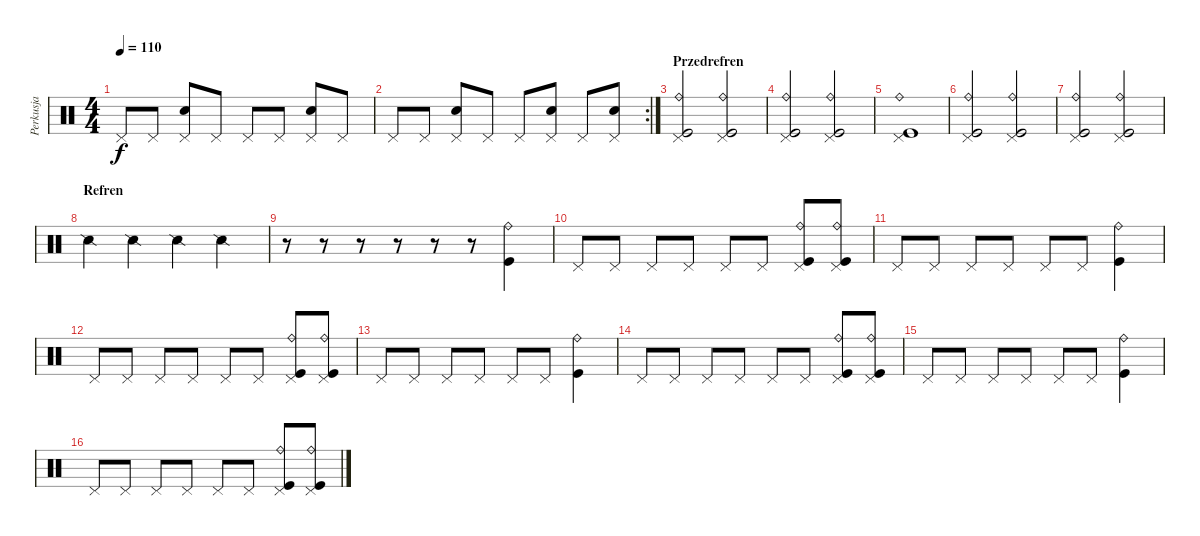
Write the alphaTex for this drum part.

\track ("Perkusja" "Perkusja") {instrument percussion}
\staff {score}
\articulation defaults
\ts (4 4)
\tempo 110
\clef neutral
\ks c "Pedal Hi-Hat (hit)".8{dy f} "Pedal Hi-Hat (hit)".8
("Electric Snare (hit)" "Pedal Hi-Hat (hit)").8 "Pedal Hi-Hat (hit)".8 "Pedal Hi-Hat (hit)".8 "Pedal Hi-Hat (hit)".8 ("Electric Snare (hit)" "Pedal Hi-Hat (hit)").8 "Pedal Hi-Hat (hit)".8 |
\rc 2 "Pedal Hi-Hat (hit)".8 "Pedal Hi-Hat (hit)".8
("Electric Snare (hit)" "Pedal Hi-Hat (hit)").8 "Pedal Hi-Hat (hit)".8 "Pedal Hi-Hat (hit)".8 ("Electric Snare (hit)" "Pedal Hi-Hat (hit)").8 "Pedal Hi-Hat (hit)".8 ("Electric Snare (hit)" "Pedal Hi-Hat (hit)").8 |
\section ("" "Przedrefren")
("Kick (hit)" "Ride (bell)" "Pedal Hi-Hat (hit)").2 ("Kick (hit)" "Ride (bell)" "Pedal Hi-Hat (hit)").2 |
("Kick (hit)" "Ride (bell)" "Pedal Hi-Hat (hit)").2 ("Kick (hit)" "Ride (bell)" "Pedal Hi-Hat (hit)").2 |
("Kick (hit)" "Ride (bell)" "Pedal Hi-Hat (hit)").1 |
("Kick (hit)" "Ride (bell)" "Pedal Hi-Hat (hit)").2 ("Kick (hit)" "Ride (bell)" "Pedal Hi-Hat (hit)").2 |
("Kick (hit)" "Ride (bell)" "Pedal Hi-Hat (hit)").2 ("Kick (hit)" "Ride (bell)" "Pedal Hi-Hat (hit)").2 |
\section ("" "Refren")
"Snare (side stick) 2".4 "Snare (side stick) 2".4 "Snare (side stick) 2".4 "Snare (side stick) 2".4 |
r.8 r.8 r.8 r.8 r.8 r.8 ("Kick (hit)" "Ride (bell)").4 |
"Pedal Hi-Hat (hit)".8 "Pedal Hi-Hat (hit)".8 "Pedal Hi-Hat (hit)".8 "Pedal Hi-Hat (hit)".8 "Pedal Hi-Hat (hit)".8 "Pedal Hi-Hat (hit)".8 ("Kick (hit)" "Ride (bell)" "Pedal Hi-Hat (hit)").8 ("Kick (hit)" "Ride (bell)" "Pedal Hi-Hat (hit)").8 |
"Pedal Hi-Hat (hit)".8 "Pedal Hi-Hat (hit)".8 "Pedal Hi-Hat (hit)".8 "Pedal Hi-Hat (hit)".8 "Pedal Hi-Hat (hit)".8 "Pedal Hi-Hat (hit)".8 ("Kick (hit)" "Ride (bell)").4 |
"Pedal Hi-Hat (hit)".8 "Pedal Hi-Hat (hit)".8 "Pedal Hi-Hat (hit)".8 "Pedal Hi-Hat (hit)".8 "Pedal Hi-Hat (hit)".8 "Pedal Hi-Hat (hit)".8 ("Kick (hit)" "Ride (bell)" "Pedal Hi-Hat (hit)").8 ("Kick (hit)" "Ride (bell)" "Pedal Hi-Hat (hit)").8 |
"Pedal Hi-Hat (hit)".8 "Pedal Hi-Hat (hit)".8 "Pedal Hi-Hat (hit)".8 "Pedal Hi-Hat (hit)".8 "Pedal Hi-Hat (hit)".8 "Pedal Hi-Hat (hit)".8 ("Kick (hit)" "Ride (bell)").4 |
"Pedal Hi-Hat (hit)".8 "Pedal Hi-Hat (hit)".8 "Pedal Hi-Hat (hit)".8 "Pedal Hi-Hat (hit)".8 "Pedal Hi-Hat (hit)".8 "Pedal Hi-Hat (hit)".8 ("Kick (hit)" "Ride (bell)" "Pedal Hi-Hat (hit)").8 ("Kick (hit)" "Ride (bell)" "Pedal Hi-Hat (hit)").8 |
"Pedal Hi-Hat (hit)".8 "Pedal Hi-Hat (hit)".8 "Pedal Hi-Hat (hit)".8 "Pedal Hi-Hat (hit)".8 "Pedal Hi-Hat (hit)".8 "Pedal Hi-Hat (hit)".8 ("Kick (hit)" "Ride (bell)").4 |
"Pedal Hi-Hat (hit)".8 "Pedal Hi-Hat (hit)".8 "Pedal Hi-Hat (hit)".8 "Pedal Hi-Hat (hit)".8 "Pedal Hi-Hat (hit)".8 "Pedal Hi-Hat (hit)".8 ("Kick (hit)" "Ride (bell)" "Pedal Hi-Hat (hit)").8 ("Kick (hit)" "Ride (bell)" "Pedal Hi-Hat (hit)").8
